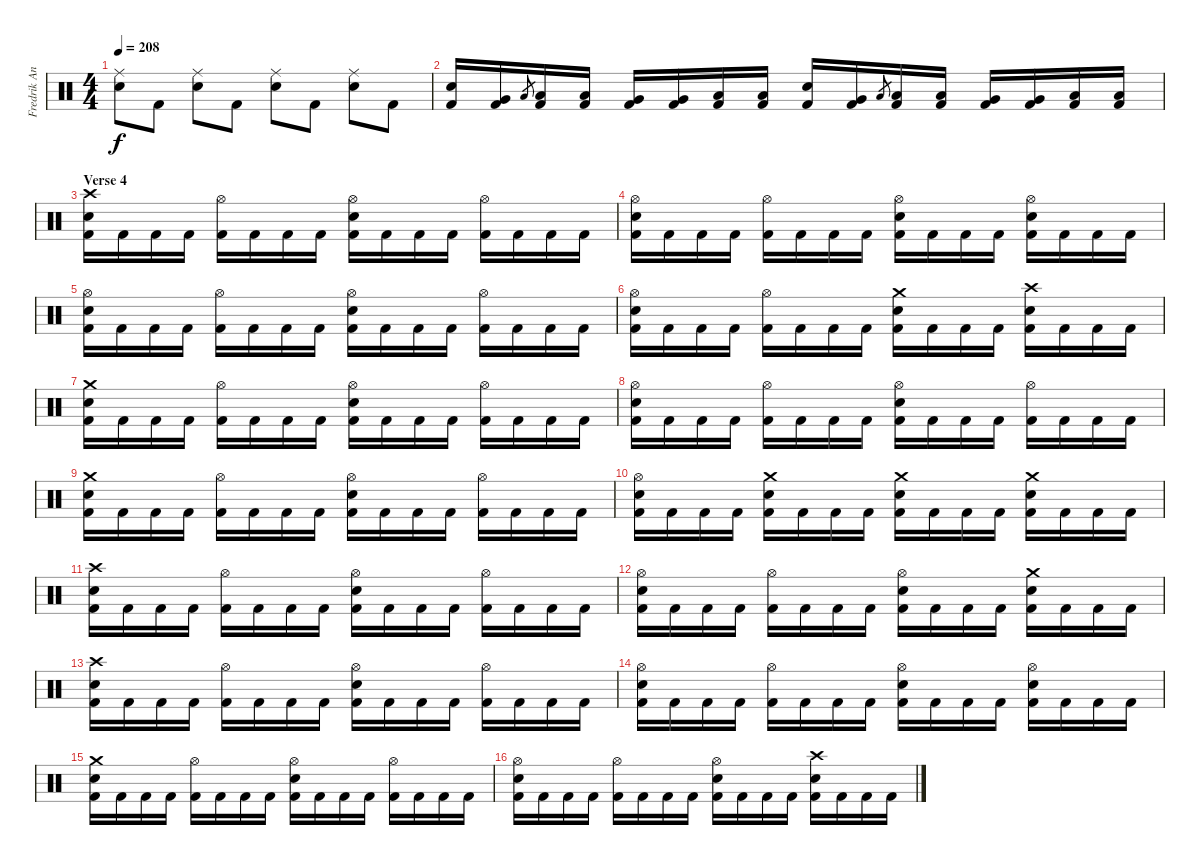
\track ("Fredrik Andersson" "Fredrik An") {instrument percussion}
\staff {score}
\articulation defaults
\ts (4 4)
\tempo 208
\clef neutral
\ks c
("Ride (middle)" "Electric Snare (hit)").8{dy f} "Kick (hit) 2".8 ("Ride (middle)" "Electric Snare (hit)").8 "Kick (hit) 2".8 ("Ride (middle)" "Electric Snare (hit)").8 "Kick (hit) 2".8 ("Ride (middle)" "Electric Snare (hit)").8 "Kick (hit) 2".8 |
("Electric Snare (hit)" "Kick (hit) 2").16 ("Very Low Tom (hit)" "Kick (hit) 2").16 "Low Floor Tom (hit)".8{gr} ("Low Floor Tom (hit)" "Kick (hit) 2").16 ("Low Floor Tom (hit)" "Kick (hit) 2").16 ("Very Low Tom (hit)" "Kick (hit) 2").16 ("Very Low Tom (hit)" "Kick (hit) 2").16 ("Low Tom (hit)" "Kick (hit) 2").16 ("Low Tom (hit)" "Kick (hit) 2").16 ("Electric Snare (hit)" "Kick (hit) 2").16 ("Very Low Tom (hit)" "Kick (hit) 2").16 "Low Floor Tom (hit)".8{gr} ("Low Floor Tom (hit)" "Kick (hit) 2").16 ("Low Floor Tom (hit)" "Kick (hit) 2").16 ("Very Low Tom (hit)" "Kick (hit) 2").16 ("Very Low Tom (hit)" "Kick (hit) 2").16 ("Low Tom (hit)" "Kick (hit) 2").16 ("Low Tom (hit)" "Kick (hit) 2").16 |
\section ("" "Verse 4")
("Crash high (hit)" "Electric Snare (hit)" "Kick (hit) 2").16 "Kick (hit) 2".16 "Kick (hit) 2".16 "Kick (hit) 2".16 ("Hi-Hat (open)" "Kick (hit) 2").16 "Kick (hit) 2".16 "Kick (hit) 2".16 "Kick (hit) 2".16 ("Hi-Hat (open)" "Electric Snare (hit)" "Kick (hit) 2").16 "Kick (hit) 2".16 "Kick (hit) 2".16 "Kick (hit) 2".16 ("Hi-Hat (open)" "Kick (hit) 2").16 "Kick (hit) 2".16 "Kick (hit) 2".16 "Kick (hit) 2".16 |
("Hi-Hat (open)" "Electric Snare (hit)" "Kick (hit) 2").16 "Kick (hit) 2".16 "Kick (hit) 2".16 "Kick (hit) 2".16 ("Hi-Hat (open)" "Kick (hit) 2").16 "Kick (hit) 2".16 "Kick (hit) 2".16 "Kick (hit) 2".16 ("Hi-Hat (open)" "Electric Snare (hit)" "Kick (hit) 2").16 "Kick (hit) 2".16 "Kick (hit) 2".16 "Kick (hit) 2".16 ("Hi-Hat (open)" "Electric Snare (hit)" "Kick (hit) 2").16 "Kick (hit) 2".16 "Kick (hit) 2".16 "Kick (hit) 2".16 |
("Hi-Hat (open)" "Electric Snare (hit)" "Kick (hit) 2").16 "Kick (hit) 2".16 "Kick (hit) 2".16 "Kick (hit) 2".16 ("Hi-Hat (open)" "Kick (hit) 2").16 "Kick (hit) 2".16 "Kick (hit) 2".16 "Kick (hit) 2".16 ("Hi-Hat (open)" "Electric Snare (hit)" "Kick (hit) 2").16 "Kick (hit) 2".16 "Kick (hit) 2".16 "Kick (hit) 2".16 ("Hi-Hat (open)" "Kick (hit) 2").16 "Kick (hit) 2".16 "Kick (hit) 2".16 "Kick (hit) 2".16 |
("Hi-Hat (open)" "Electric Snare (hit)" "Kick (hit) 2").16 "Kick (hit) 2".16 "Kick (hit) 2".16 "Kick (hit) 2".16 ("Hi-Hat (open)" "Kick (hit) 2").16 "Kick (hit) 2".16 "Kick (hit) 2".16 "Kick (hit) 2".16 ("Crash medium (hit)" "Electric Snare (hit)" "Kick (hit) 2").16 "Kick (hit) 2".16 "Kick (hit) 2".16 "Kick (hit) 2".16 ("Crash high (hit)" "Electric Snare (hit)" "Kick (hit) 2").16 "Kick (hit) 2".16 "Kick (hit) 2".16 "Kick (hit) 2".16 |
("Crash medium (hit)" "Electric Snare (hit)" "Kick (hit) 2").16 "Kick (hit) 2".16 "Kick (hit) 2".16 "Kick (hit) 2".16 ("Hi-Hat (open)" "Kick (hit) 2").16 "Kick (hit) 2".16 "Kick (hit) 2".16 "Kick (hit) 2".16 ("Hi-Hat (open)" "Electric Snare (hit)" "Kick (hit) 2").16 "Kick (hit) 2".16 "Kick (hit) 2".16 "Kick (hit) 2".16 ("Hi-Hat (open)" "Kick (hit) 2").16 "Kick (hit) 2".16 "Kick (hit) 2".16 "Kick (hit) 2".16 |
("Hi-Hat (open)" "Electric Snare (hit)" "Kick (hit) 2").16 "Kick (hit) 2".16 "Kick (hit) 2".16 "Kick (hit) 2".16 ("Hi-Hat (open)" "Kick (hit) 2").16 "Kick (hit) 2".16 "Kick (hit) 2".16 "Kick (hit) 2".16 ("Hi-Hat (open)" "Electric Snare (hit)" "Kick (hit) 2").16 "Kick (hit) 2".16 "Kick (hit) 2".16 "Kick (hit) 2".16 ("Hi-Hat (open)" "Kick (hit) 2").16 "Kick (hit) 2".16 "Kick (hit) 2".16 "Kick (hit) 2".16 |
("Crash medium (hit)" "Electric Snare (hit)" "Kick (hit) 2").16 "Kick (hit) 2".16 "Kick (hit) 2".16 "Kick (hit) 2".16 ("Hi-Hat (open)" "Kick (hit) 2").16 "Kick (hit) 2".16 "Kick (hit) 2".16 "Kick (hit) 2".16 ("Hi-Hat (open)" "Electric Snare (hit)" "Kick (hit) 2").16 "Kick (hit) 2".16 "Kick (hit) 2".16 "Kick (hit) 2".16 ("Hi-Hat (open)" "Kick (hit) 2").16 "Kick (hit) 2".16 "Kick (hit) 2".16 "Kick (hit) 2".16 |
("Hi-Hat (open)" "Electric Snare (hit)" "Kick (hit) 2").16 "Kick (hit) 2".16 "Kick (hit) 2".16 "Kick (hit) 2".16 ("Crash medium (hit)" "Electric Snare (hit)" "Kick (hit) 2").16 "Kick (hit) 2".16 "Kick (hit) 2".16 "Kick (hit) 2".16 ("Crash medium (hit)" "Electric Snare (hit)" "Kick (hit) 2").16 "Kick (hit) 2".16 "Kick (hit) 2".16 "Kick (hit) 2".16 ("Crash medium (hit)" "Electric Snare (hit)" "Kick (hit) 2").16 "Kick (hit) 2".16 "Kick (hit) 2".16 "Kick (hit) 2".16 |
\section ("" "")
("Crash high (hit)" "Electric Snare (hit)" "Kick (hit) 2").16 "Kick (hit) 2".16 "Kick (hit) 2".16 "Kick (hit) 2".16 ("Hi-Hat (open)" "Kick (hit) 2").16 "Kick (hit) 2".16 "Kick (hit) 2".16 "Kick (hit) 2".16 ("Hi-Hat (open)" "Electric Snare (hit)" "Kick (hit) 2").16 "Kick (hit) 2".16 "Kick (hit) 2".16 "Kick (hit) 2".16 ("Hi-Hat (open)" "Kick (hit) 2").16 "Kick (hit) 2".16 "Kick (hit) 2".16 "Kick (hit) 2".16 |
("Hi-Hat (open)" "Electric Snare (hit)" "Kick (hit) 2").16 "Kick (hit) 2".16 "Kick (hit) 2".16 "Kick (hit) 2".16 ("Hi-Hat (open)" "Kick (hit) 2").16 "Kick (hit) 2".16 "Kick (hit) 2".16 "Kick (hit) 2".16 ("Hi-Hat (open)" "Electric Snare (hit)" "Kick (hit) 2").16 "Kick (hit) 2".16 "Kick (hit) 2".16 "Kick (hit) 2".16 ("Crash medium (hit)" "Electric Snare (hit)" "Kick (hit) 2").16 "Kick (hit) 2".16 "Kick (hit) 2".16 "Kick (hit) 2".16 |
("Crash high (hit)" "Electric Snare (hit)" "Kick (hit) 2").16 "Kick (hit) 2".16 "Kick (hit) 2".16 "Kick (hit) 2".16 ("Hi-Hat (open)" "Kick (hit) 2").16 "Kick (hit) 2".16 "Kick (hit) 2".16 "Kick (hit) 2".16 ("Hi-Hat (open)" "Electric Snare (hit)" "Kick (hit) 2").16 "Kick (hit) 2".16 "Kick (hit) 2".16 "Kick (hit) 2".16 ("Hi-Hat (open)" "Kick (hit) 2").16 "Kick (hit) 2".16 "Kick (hit) 2".16 "Kick (hit) 2".16 |
("Hi-Hat (open)" "Electric Snare (hit)" "Kick (hit) 2").16 "Kick (hit) 2".16 "Kick (hit) 2".16 "Kick (hit) 2".16 ("Hi-Hat (open)" "Kick (hit) 2").16 "Kick (hit) 2".16 "Kick (hit) 2".16 "Kick (hit) 2".16 ("Hi-Hat (open)" "Electric Snare (hit)" "Kick (hit) 2").16 "Kick (hit) 2".16 "Kick (hit) 2".16 "Kick (hit) 2".16 ("Hi-Hat (open)" "Electric Snare (hit)" "Kick (hit) 2").16 "Kick (hit) 2".16 "Kick (hit) 2".16 "Kick (hit) 2".16 |
("Crash medium (hit)" "Electric Snare (hit)" "Kick (hit) 2").16 "Kick (hit) 2".16 "Kick (hit) 2".16 "Kick (hit) 2".16 ("Hi-Hat (open)" "Kick (hit) 2").16 "Kick (hit) 2".16 "Kick (hit) 2".16 "Kick (hit) 2".16 ("Hi-Hat (open)" "Electric Snare (hit)" "Kick (hit) 2").16 "Kick (hit) 2".16 "Kick (hit) 2".16 "Kick (hit) 2".16 ("Hi-Hat (open)" "Kick (hit) 2").16 "Kick (hit) 2".16 "Kick (hit) 2".16 "Kick (hit) 2".16 |
("Hi-Hat (open)" "Electric Snare (hit)" "Kick (hit) 2").16 "Kick (hit) 2".16 "Kick (hit) 2".16 "Kick (hit) 2".16 ("Hi-Hat (open)" "Kick (hit) 2").16 "Kick (hit) 2".16 "Kick (hit) 2".16 "Kick (hit) 2".16 ("Hi-Hat (open)" "Electric Snare (hit)" "Kick (hit) 2").16 "Kick (hit) 2".16 "Kick (hit) 2".16 "Kick (hit) 2".16 ("Crash high (hit)" "Electric Snare (hit)" "Kick (hit) 2").16 "Kick (hit) 2".16 "Kick (hit) 2".16 "Kick (hit) 2".16
